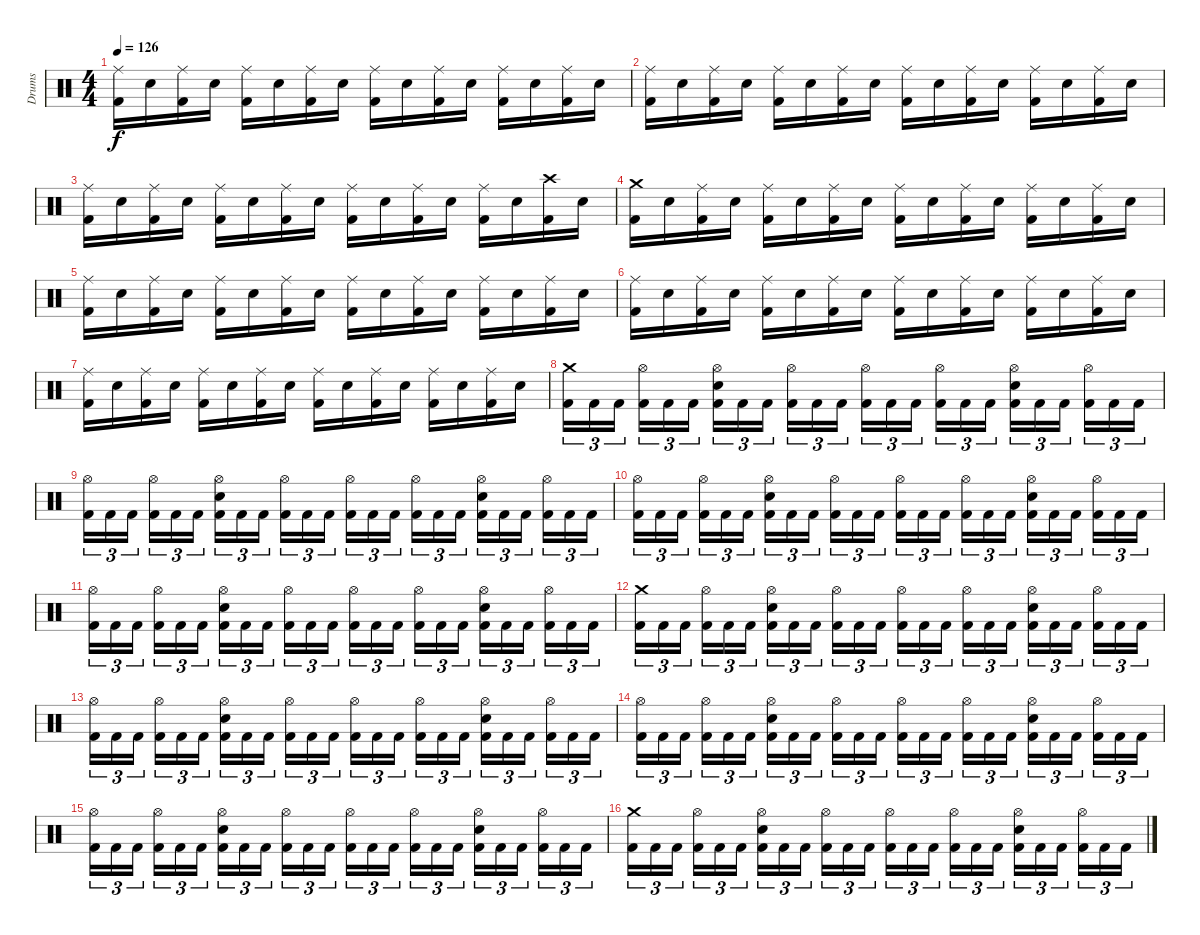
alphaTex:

\track ("Drums" "Drums") {instrument percussion}
\staff {score}
\articulation defaults
\ts (4 4)
\tempo 126
\clef neutral
\ks c
("Kick (hit) 2" "Ride (middle)").16{dy f} "Electric Snare (hit)".16 ("Kick (hit) 2" "Ride (middle)").16 "Electric Snare (hit)".16 ("Kick (hit) 2" "Ride (middle)").16 "Electric Snare (hit)".16 ("Kick (hit) 2" "Ride (middle)").16 "Electric Snare (hit)".16 ("Kick (hit) 2" "Ride (middle)").16 "Electric Snare (hit)".16 ("Kick (hit) 2" "Ride (middle)").16 "Electric Snare (hit)".16 ("Kick (hit) 2" "Ride (middle)").16 "Electric Snare (hit)".16 ("Kick (hit) 2" "Ride (middle)").16 "Electric Snare (hit)".16 |
("Kick (hit) 2" "Ride (middle)").16 "Electric Snare (hit)".16 ("Kick (hit) 2" "Ride (middle)").16 "Electric Snare (hit)".16 ("Kick (hit) 2" "Ride (middle)").16 "Electric Snare (hit)".16 ("Kick (hit) 2" "Ride (middle)").16 "Electric Snare (hit)".16 ("Kick (hit) 2" "Ride (middle)").16 "Electric Snare (hit)".16 ("Kick (hit) 2" "Ride (middle)").16 "Electric Snare (hit)".16 ("Kick (hit) 2" "Ride (middle)").16 "Electric Snare (hit)".16 ("Kick (hit) 2" "Ride (middle)").16 "Electric Snare (hit)".16 |
("Kick (hit) 2" "Ride (middle)").16 "Electric Snare (hit)".16 ("Kick (hit) 2" "Ride (middle)").16 "Electric Snare (hit)".16 ("Kick (hit) 2" "Ride (middle)").16 "Electric Snare (hit)".16 ("Kick (hit) 2" "Ride (middle)").16 "Electric Snare (hit)".16 ("Kick (hit) 2" "Ride (middle)").16 "Electric Snare (hit)".16 ("Kick (hit) 2" "Ride (middle)").16 "Electric Snare (hit)".16 ("Kick (hit) 2" "Ride (middle)").16 "Electric Snare (hit)".16 ("Kick (hit) 2" "Crash high (hit)").16 "Electric Snare (hit)".16 |
("Kick (hit) 2" "Crash medium (hit)").16 "Electric Snare (hit)".16 ("Kick (hit) 2" "Ride (middle)").16 "Electric Snare (hit)".16 ("Kick (hit) 2" "Ride (middle)").16 "Electric Snare (hit)".16 ("Kick (hit) 2" "Ride (middle)").16 "Electric Snare (hit)".16 ("Kick (hit) 2" "Ride (middle)").16 "Electric Snare (hit)".16 ("Kick (hit) 2" "Ride (middle)").16 "Electric Snare (hit)".16 ("Kick (hit) 2" "Ride (middle)").16 "Electric Snare (hit)".16 ("Kick (hit) 2" "Ride (middle)").16 "Electric Snare (hit)".16 |
("Kick (hit) 2" "Ride (middle)").16 "Electric Snare (hit)".16 ("Kick (hit) 2" "Ride (middle)").16 "Electric Snare (hit)".16 ("Kick (hit) 2" "Ride (middle)").16 "Electric Snare (hit)".16 ("Kick (hit) 2" "Ride (middle)").16 "Electric Snare (hit)".16 ("Kick (hit) 2" "Ride (middle)").16 "Electric Snare (hit)".16 ("Kick (hit) 2" "Ride (middle)").16 "Electric Snare (hit)".16 ("Kick (hit) 2" "Ride (middle)").16 "Electric Snare (hit)".16 ("Kick (hit) 2" "Ride (middle)").16 "Electric Snare (hit)".16 |
("Kick (hit) 2" "Ride (middle)").16 "Electric Snare (hit)".16 ("Kick (hit) 2" "Ride (middle)").16 "Electric Snare (hit)".16 ("Kick (hit) 2" "Ride (middle)").16 "Electric Snare (hit)".16 ("Kick (hit) 2" "Ride (middle)").16 "Electric Snare (hit)".16 ("Kick (hit) 2" "Ride (middle)").16 "Electric Snare (hit)".16 ("Kick (hit) 2" "Ride (middle)").16 "Electric Snare (hit)".16 ("Kick (hit) 2" "Ride (middle)").16 "Electric Snare (hit)".16 ("Kick (hit) 2" "Ride (middle)").16 "Electric Snare (hit)".16 |
("Kick (hit) 2" "Ride (middle)").16 "Electric Snare (hit)".16 ("Kick (hit) 2" "Ride (middle)").16 "Electric Snare (hit)".16 ("Kick (hit) 2" "Ride (middle)").16 "Electric Snare (hit)".16 ("Kick (hit) 2" "Ride (middle)").16 "Electric Snare (hit)".16 ("Kick (hit) 2" "Ride (middle)").16 "Electric Snare (hit)".16 ("Kick (hit) 2" "Ride (middle)").16 "Electric Snare (hit)".16 ("Kick (hit) 2" "Ride (middle)").16 "Electric Snare (hit)".16 ("Kick (hit) 2" "Ride (middle)").16 "Electric Snare (hit)".16 |
("Kick (hit) 2" "Crash medium (hit)").16{tu (3 2)} "Kick (hit) 2".16{tu (3 2)} "Kick (hit) 2".16{tu (3 2)} ("Kick (hit) 2" "Hi-Hat (open)").16{tu (3 2)} "Kick (hit) 2".16{tu (3 2)} "Kick (hit) 2".16{tu (3 2)} ("Kick (hit) 2" "Electric Snare (hit)" "Hi-Hat (open)").16{tu (3 2)} "Kick (hit) 2".16{tu (3 2)} "Kick (hit) 2".16{tu (3 2)} ("Kick (hit) 2" "Hi-Hat (open)").16{tu (3 2)} "Kick (hit) 2".16{tu (3 2)} "Kick (hit) 2".16{tu (3 2)} ("Kick (hit) 2" "Hi-Hat (open)").16{tu (3 2)} "Kick (hit) 2".16{tu (3 2)} "Kick (hit) 2".16{tu (3 2)} ("Kick (hit) 2" "Hi-Hat (open)").16{tu (3 2)} "Kick (hit) 2".16{tu (3 2)} "Kick (hit) 2".16{tu (3 2)} ("Kick (hit) 2" "Electric Snare (hit)" "Hi-Hat (open)").16{tu (3 2)} "Kick (hit) 2".16{tu (3 2)} "Kick (hit) 2".16{tu (3 2)} ("Kick (hit) 2" "Hi-Hat (open)").16{tu (3 2)} "Kick (hit) 2".16{tu (3 2)} "Kick (hit) 2".16{tu (3 2)} |
("Kick (hit) 2" "Hi-Hat (open)").16{tu (3 2)} "Kick (hit) 2".16{tu (3 2)} "Kick (hit) 2".16{tu (3 2)} ("Kick (hit) 2" "Hi-Hat (open)").16{tu (3 2)} "Kick (hit) 2".16{tu (3 2)} "Kick (hit) 2".16{tu (3 2)} ("Kick (hit) 2" "Electric Snare (hit)" "Hi-Hat (open)").16{tu (3 2)} "Kick (hit) 2".16{tu (3 2)} "Kick (hit) 2".16{tu (3 2)} ("Kick (hit) 2" "Hi-Hat (open)").16{tu (3 2)} "Kick (hit) 2".16{tu (3 2)} "Kick (hit) 2".16{tu (3 2)} ("Kick (hit) 2" "Hi-Hat (open)").16{tu (3 2)} "Kick (hit) 2".16{tu (3 2)} "Kick (hit) 2".16{tu (3 2)} ("Kick (hit) 2" "Hi-Hat (open)").16{tu (3 2)} "Kick (hit) 2".16{tu (3 2)} "Kick (hit) 2".16{tu (3 2)} ("Kick (hit) 2" "Electric Snare (hit)" "Hi-Hat (open)").16{tu (3 2)} "Kick (hit) 2".16{tu (3 2)} "Kick (hit) 2".16{tu (3 2)} ("Kick (hit) 2" "Hi-Hat (open)").16{tu (3 2)} "Kick (hit) 2".16{tu (3 2)} "Kick (hit) 2".16{tu (3 2)} |
("Kick (hit) 2" "Hi-Hat (open)").16{tu (3 2)} "Kick (hit) 2".16{tu (3 2)} "Kick (hit) 2".16{tu (3 2)} ("Kick (hit) 2" "Hi-Hat (open)").16{tu (3 2)} "Kick (hit) 2".16{tu (3 2)} "Kick (hit) 2".16{tu (3 2)} ("Kick (hit) 2" "Electric Snare (hit)" "Hi-Hat (open)").16{tu (3 2)} "Kick (hit) 2".16{tu (3 2)} "Kick (hit) 2".16{tu (3 2)} ("Kick (hit) 2" "Hi-Hat (open)").16{tu (3 2)} "Kick (hit) 2".16{tu (3 2)} "Kick (hit) 2".16{tu (3 2)} ("Kick (hit) 2" "Hi-Hat (open)").16{tu (3 2)} "Kick (hit) 2".16{tu (3 2)} "Kick (hit) 2".16{tu (3 2)} ("Kick (hit) 2" "Hi-Hat (open)").16{tu (3 2)} "Kick (hit) 2".16{tu (3 2)} "Kick (hit) 2".16{tu (3 2)} ("Kick (hit) 2" "Electric Snare (hit)" "Hi-Hat (open)").16{tu (3 2)} "Kick (hit) 2".16{tu (3 2)} "Kick (hit) 2".16{tu (3 2)} ("Kick (hit) 2" "Hi-Hat (open)").16{tu (3 2)} "Kick (hit) 2".16{tu (3 2)} "Kick (hit) 2".16{tu (3 2)} |
("Kick (hit) 2" "Hi-Hat (open)").16{tu (3 2)} "Kick (hit) 2".16{tu (3 2)} "Kick (hit) 2".16{tu (3 2)} ("Kick (hit) 2" "Hi-Hat (open)").16{tu (3 2)} "Kick (hit) 2".16{tu (3 2)} "Kick (hit) 2".16{tu (3 2)} ("Kick (hit) 2" "Electric Snare (hit)" "Hi-Hat (open)").16{tu (3 2)} "Kick (hit) 2".16{tu (3 2)} "Kick (hit) 2".16{tu (3 2)} ("Kick (hit) 2" "Hi-Hat (open)").16{tu (3 2)} "Kick (hit) 2".16{tu (3 2)} "Kick (hit) 2".16{tu (3 2)} ("Kick (hit) 2" "Hi-Hat (open)").16{tu (3 2)} "Kick (hit) 2".16{tu (3 2)} "Kick (hit) 2".16{tu (3 2)} ("Kick (hit) 2" "Hi-Hat (open)").16{tu (3 2)} "Kick (hit) 2".16{tu (3 2)} "Kick (hit) 2".16{tu (3 2)} ("Kick (hit) 2" "Electric Snare (hit)" "Hi-Hat (open)").16{tu (3 2)} "Kick (hit) 2".16{tu (3 2)} "Kick (hit) 2".16{tu (3 2)} ("Kick (hit) 2" "Hi-Hat (open)").16{tu (3 2)} "Kick (hit) 2".16{tu (3 2)} "Kick (hit) 2".16{tu (3 2)} |
("Kick (hit) 2" "Crash medium (hit)").16{tu (3 2)} "Kick (hit) 2".16{tu (3 2)} "Kick (hit) 2".16{tu (3 2)} ("Kick (hit) 2" "Hi-Hat (open)").16{tu (3 2)} "Kick (hit) 2".16{tu (3 2)} "Kick (hit) 2".16{tu (3 2)} ("Kick (hit) 2" "Electric Snare (hit)" "Hi-Hat (open)").16{tu (3 2)} "Kick (hit) 2".16{tu (3 2)} "Kick (hit) 2".16{tu (3 2)} ("Kick (hit) 2" "Hi-Hat (open)").16{tu (3 2)} "Kick (hit) 2".16{tu (3 2)} "Kick (hit) 2".16{tu (3 2)} ("Kick (hit) 2" "Hi-Hat (open)").16{tu (3 2)} "Kick (hit) 2".16{tu (3 2)} "Kick (hit) 2".16{tu (3 2)} ("Kick (hit) 2" "Hi-Hat (open)").16{tu (3 2)} "Kick (hit) 2".16{tu (3 2)} "Kick (hit) 2".16{tu (3 2)} ("Kick (hit) 2" "Electric Snare (hit)" "Hi-Hat (open)").16{tu (3 2)} "Kick (hit) 2".16{tu (3 2)} "Kick (hit) 2".16{tu (3 2)} ("Kick (hit) 2" "Hi-Hat (open)").16{tu (3 2)} "Kick (hit) 2".16{tu (3 2)} "Kick (hit) 2".16{tu (3 2)} |
("Kick (hit) 2" "Hi-Hat (open)").16{tu (3 2)} "Kick (hit) 2".16{tu (3 2)} "Kick (hit) 2".16{tu (3 2)} ("Kick (hit) 2" "Hi-Hat (open)").16{tu (3 2)} "Kick (hit) 2".16{tu (3 2)} "Kick (hit) 2".16{tu (3 2)} ("Kick (hit) 2" "Electric Snare (hit)" "Hi-Hat (open)").16{tu (3 2)} "Kick (hit) 2".16{tu (3 2)} "Kick (hit) 2".16{tu (3 2)} ("Kick (hit) 2" "Hi-Hat (open)").16{tu (3 2)} "Kick (hit) 2".16{tu (3 2)} "Kick (hit) 2".16{tu (3 2)} ("Kick (hit) 2" "Hi-Hat (open)").16{tu (3 2)} "Kick (hit) 2".16{tu (3 2)} "Kick (hit) 2".16{tu (3 2)} ("Kick (hit) 2" "Hi-Hat (open)").16{tu (3 2)} "Kick (hit) 2".16{tu (3 2)} "Kick (hit) 2".16{tu (3 2)} ("Kick (hit) 2" "Electric Snare (hit)" "Hi-Hat (open)").16{tu (3 2)} "Kick (hit) 2".16{tu (3 2)} "Kick (hit) 2".16{tu (3 2)} ("Kick (hit) 2" "Hi-Hat (open)").16{tu (3 2)} "Kick (hit) 2".16{tu (3 2)} "Kick (hit) 2".16{tu (3 2)} |
("Kick (hit) 2" "Hi-Hat (open)").16{tu (3 2)} "Kick (hit) 2".16{tu (3 2)} "Kick (hit) 2".16{tu (3 2)} ("Kick (hit) 2" "Hi-Hat (open)").16{tu (3 2)} "Kick (hit) 2".16{tu (3 2)} "Kick (hit) 2".16{tu (3 2)} ("Kick (hit) 2" "Electric Snare (hit)" "Hi-Hat (open)").16{tu (3 2)} "Kick (hit) 2".16{tu (3 2)} "Kick (hit) 2".16{tu (3 2)} ("Kick (hit) 2" "Hi-Hat (open)").16{tu (3 2)} "Kick (hit) 2".16{tu (3 2)} "Kick (hit) 2".16{tu (3 2)} ("Kick (hit) 2" "Hi-Hat (open)").16{tu (3 2)} "Kick (hit) 2".16{tu (3 2)} "Kick (hit) 2".16{tu (3 2)} ("Kick (hit) 2" "Hi-Hat (open)").16{tu (3 2)} "Kick (hit) 2".16{tu (3 2)} "Kick (hit) 2".16{tu (3 2)} ("Kick (hit) 2" "Electric Snare (hit)" "Hi-Hat (open)").16{tu (3 2)} "Kick (hit) 2".16{tu (3 2)} "Kick (hit) 2".16{tu (3 2)} ("Kick (hit) 2" "Hi-Hat (open)").16{tu (3 2)} "Kick (hit) 2".16{tu (3 2)} "Kick (hit) 2".16{tu (3 2)} |
("Kick (hit) 2" "Hi-Hat (open)").16{tu (3 2)} "Kick (hit) 2".16{tu (3 2)} "Kick (hit) 2".16{tu (3 2)} ("Kick (hit) 2" "Hi-Hat (open)").16{tu (3 2)} "Kick (hit) 2".16{tu (3 2)} "Kick (hit) 2".16{tu (3 2)} ("Kick (hit) 2" "Electric Snare (hit)" "Hi-Hat (open)").16{tu (3 2)} "Kick (hit) 2".16{tu (3 2)} "Kick (hit) 2".16{tu (3 2)} ("Kick (hit) 2" "Hi-Hat (open)").16{tu (3 2)} "Kick (hit) 2".16{tu (3 2)} "Kick (hit) 2".16{tu (3 2)} ("Kick (hit) 2" "Hi-Hat (open)").16{tu (3 2)} "Kick (hit) 2".16{tu (3 2)} "Kick (hit) 2".16{tu (3 2)} ("Kick (hit) 2" "Hi-Hat (open)").16{tu (3 2)} "Kick (hit) 2".16{tu (3 2)} "Kick (hit) 2".16{tu (3 2)} ("Kick (hit) 2" "Electric Snare (hit)" "Hi-Hat (open)").16{tu (3 2)} "Kick (hit) 2".16{tu (3 2)} "Kick (hit) 2".16{tu (3 2)} ("Kick (hit) 2" "Hi-Hat (open)").16{tu (3 2)} "Kick (hit) 2".16{tu (3 2)} "Kick (hit) 2".16{tu (3 2)} |
("Kick (hit) 2" "Crash medium (hit)").16{tu (3 2)} "Kick (hit) 2".16{tu (3 2)} "Kick (hit) 2".16{tu (3 2)} ("Kick (hit) 2" "Hi-Hat (open)").16{tu (3 2)} "Kick (hit) 2".16{tu (3 2)} "Kick (hit) 2".16{tu (3 2)} ("Kick (hit) 2" "Electric Snare (hit)" "Hi-Hat (open)").16{tu (3 2)} "Kick (hit) 2".16{tu (3 2)} "Kick (hit) 2".16{tu (3 2)} ("Kick (hit) 2" "Hi-Hat (open)").16{tu (3 2)} "Kick (hit) 2".16{tu (3 2)} "Kick (hit) 2".16{tu (3 2)} ("Kick (hit) 2" "Hi-Hat (open)").16{tu (3 2)} "Kick (hit) 2".16{tu (3 2)} "Kick (hit) 2".16{tu (3 2)} ("Kick (hit) 2" "Hi-Hat (open)").16{tu (3 2)} "Kick (hit) 2".16{tu (3 2)} "Kick (hit) 2".16{tu (3 2)} ("Kick (hit) 2" "Electric Snare (hit)" "Hi-Hat (open)").16{tu (3 2)} "Kick (hit) 2".16{tu (3 2)} "Kick (hit) 2".16{tu (3 2)} ("Kick (hit) 2" "Hi-Hat (open)").16{tu (3 2)} "Kick (hit) 2".16{tu (3 2)} "Kick (hit) 2".16{tu (3 2)}
